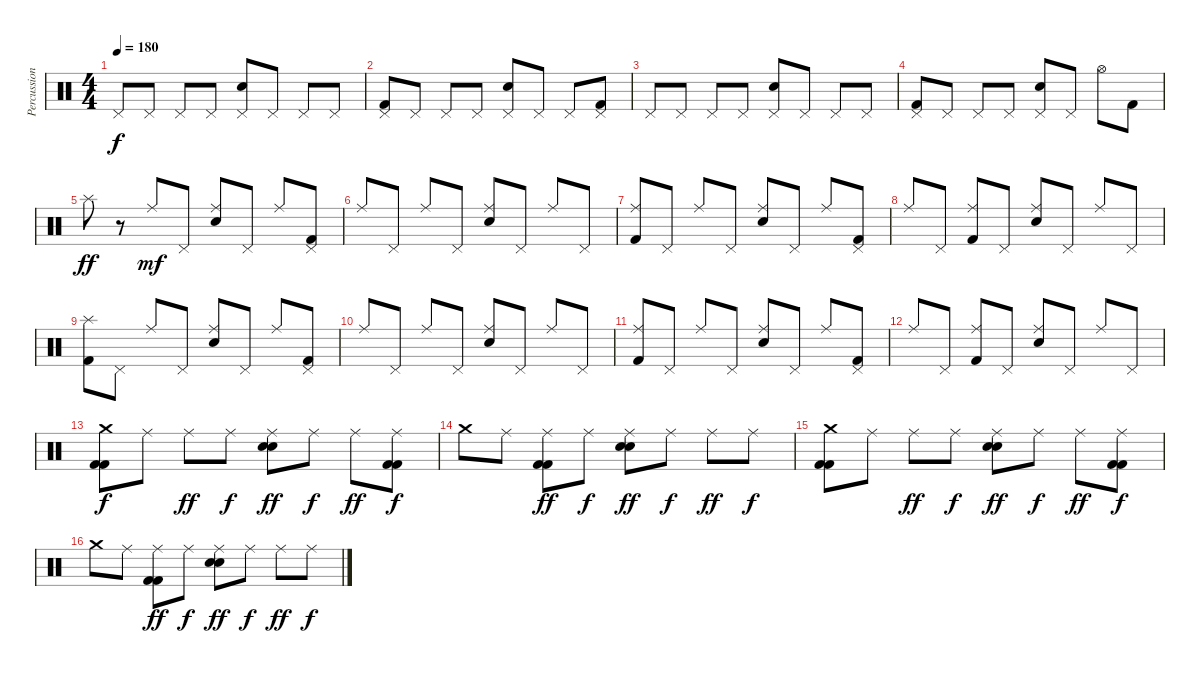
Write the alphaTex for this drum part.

\track ("Percussion" "Percussion") {instrument percussion}
\staff {score}
\articulation defaults
\ts (4 4)
\tempo 180
\clef neutral
\ks c "Pedal Hi-Hat (hit)".8{dy f} "Pedal Hi-Hat (hit)".8 "Pedal Hi-Hat (hit)".8 "Pedal Hi-Hat (hit)".8
("Pedal Hi-Hat (hit)" "Electric Snare (hit)").8 "Pedal Hi-Hat (hit)".8 "Pedal Hi-Hat (hit)".8 "Pedal Hi-Hat (hit)".8 |
("Pedal Hi-Hat (hit)" "Kick (hit) 2").8 "Pedal Hi-Hat (hit)".8 "Pedal Hi-Hat (hit)".8 "Pedal Hi-Hat (hit)".8 ("Pedal Hi-Hat (hit)" "Electric Snare (hit)").8 "Pedal Hi-Hat (hit)".8 "Pedal Hi-Hat (hit)".8 ("Pedal Hi-Hat (hit)" "Kick (hit) 2").8 |
"Pedal Hi-Hat (hit)".8 "Pedal Hi-Hat (hit)".8 "Pedal Hi-Hat (hit)".8 "Pedal Hi-Hat (hit)".8 ("Pedal Hi-Hat (hit)" "Electric Snare (hit)").8 "Pedal Hi-Hat (hit)".8 "Pedal Hi-Hat (hit)".8 "Pedal Hi-Hat (hit)".8 |
("Pedal Hi-Hat (hit)" "Kick (hit) 2").8 "Pedal Hi-Hat (hit)".8 "Pedal Hi-Hat (hit)".8 "Pedal Hi-Hat (hit)".8 ("Pedal Hi-Hat (hit)" "Electric Snare (hit)").8 "Pedal Hi-Hat (hit)".8 "Hi-Hat (open)".8 "Kick (hit) 2".8 |
"Splash (hit)".8{dy ff} r.8 "Ride (middle)".8{dy mf} "Pedal Hi-Hat (hit)".8 ("Ride (middle)" "Electric Snare (hit)").8 "Pedal Hi-Hat (hit)".8 "Ride (middle)".8 ("Pedal Hi-Hat (hit)" "Kick (hit) 2").8 |
"Ride (middle)".8 "Pedal Hi-Hat (hit)".8 "Ride (middle)".8 "Pedal Hi-Hat (hit)".8 ("Ride (middle)" "Electric Snare (hit)").8 "Pedal Hi-Hat (hit)".8 "Ride (middle)".8 "Pedal Hi-Hat (hit)".8 |
("Ride (middle)" "Kick (hit) 2").8 "Pedal Hi-Hat (hit)".8 "Ride (middle)".8 "Pedal Hi-Hat (hit)".8 ("Ride (middle)" "Electric Snare (hit)").8 "Pedal Hi-Hat (hit)".8 "Ride (middle)".8 ("Pedal Hi-Hat (hit)" "Kick (hit) 2").8 |
"Ride (middle)".8 "Pedal Hi-Hat (hit)".8 ("Ride (middle)" "Kick (hit) 2").8 "Pedal Hi-Hat (hit)".8 ("Ride (middle)" "Electric Snare (hit)").8 "Pedal Hi-Hat (hit)".8 "Ride (middle)".8 "Pedal Hi-Hat (hit)".8 |
("Splash (hit)" "Kick (hit) 2").8 "Pedal Hi-Hat (hit)".8 "Ride (middle)".8 "Pedal Hi-Hat (hit)".8 ("Ride (middle)" "Electric Snare (hit)").8 "Pedal Hi-Hat (hit)".8 "Ride (middle)".8 ("Pedal Hi-Hat (hit)" "Kick (hit) 2").8 |
"Ride (middle)".8 "Pedal Hi-Hat (hit)".8 "Ride (middle)".8 "Pedal Hi-Hat (hit)".8 ("Ride (middle)" "Electric Snare (hit)").8 "Pedal Hi-Hat (hit)".8 "Ride (middle)".8 "Pedal Hi-Hat (hit)".8 |
("Ride (middle)" "Kick (hit) 2").8 "Pedal Hi-Hat (hit)".8 "Ride (middle)".8 "Pedal Hi-Hat (hit)".8 ("Ride (middle)" "Electric Snare (hit)").8 "Pedal Hi-Hat (hit)".8 "Ride (middle)".8 ("Pedal Hi-Hat (hit)" "Kick (hit) 2").8 |
"Ride (middle)".8 "Pedal Hi-Hat (hit)".8 ("Ride (middle)" "Kick (hit) 2").8 "Pedal Hi-Hat (hit)".8 ("Ride (middle)" "Electric Snare (hit)").8 "Pedal Hi-Hat (hit)".8 "Ride (middle)".8 "Pedal Hi-Hat (hit)".8 |
("Crash medium (hit)" "Kick (hit) 2" "Kick (hit) 2").8{dy f} "Ride (middle)".8 "Ride (middle)".8{dy ff} "Ride (middle)".8{dy f} ("Ride (middle)" "Electric Snare (hit)" "Snare (hit) 2").8{dy ff} "Ride (middle)".8{dy f} "Ride (middle)".8{dy ff} ("Ride (middle)" "Kick (hit) 2" "Kick (hit) 2").8{dy f} |
"Crash medium (hit)".8 "Ride (middle)".8 ("Ride (middle)" "Kick (hit) 2" "Kick (hit) 2").8{dy ff} "Ride (middle)".8{dy f} ("Ride (middle)" "Electric Snare (hit)" "Snare (hit) 2").8{dy ff} "Ride (middle)".8{dy f} "Ride (middle)".8{dy ff} "Ride (middle)".8{dy f} |
("Crash medium (hit)" "Kick (hit) 2" "Kick (hit) 2").8 "Ride (middle)".8 "Ride (middle)".8{dy ff} "Ride (middle)".8{dy f} ("Ride (middle)" "Electric Snare (hit)" "Snare (hit) 2").8{dy ff} "Ride (middle)".8{dy f} "Ride (middle)".8{dy ff} ("Ride (middle)" "Kick (hit) 2" "Kick (hit) 2").8{dy f} |
"Crash medium (hit)".8 "Ride (middle)".8 ("Ride (middle)" "Kick (hit) 2" "Kick (hit) 2").8{dy ff} "Ride (middle)".8{dy f} ("Ride (middle)" "Electric Snare (hit)" "Snare (hit) 2").8{dy ff} "Ride (middle)".8{dy f} "Ride (middle)".8{dy ff} "Ride (middle)".8{dy f}
